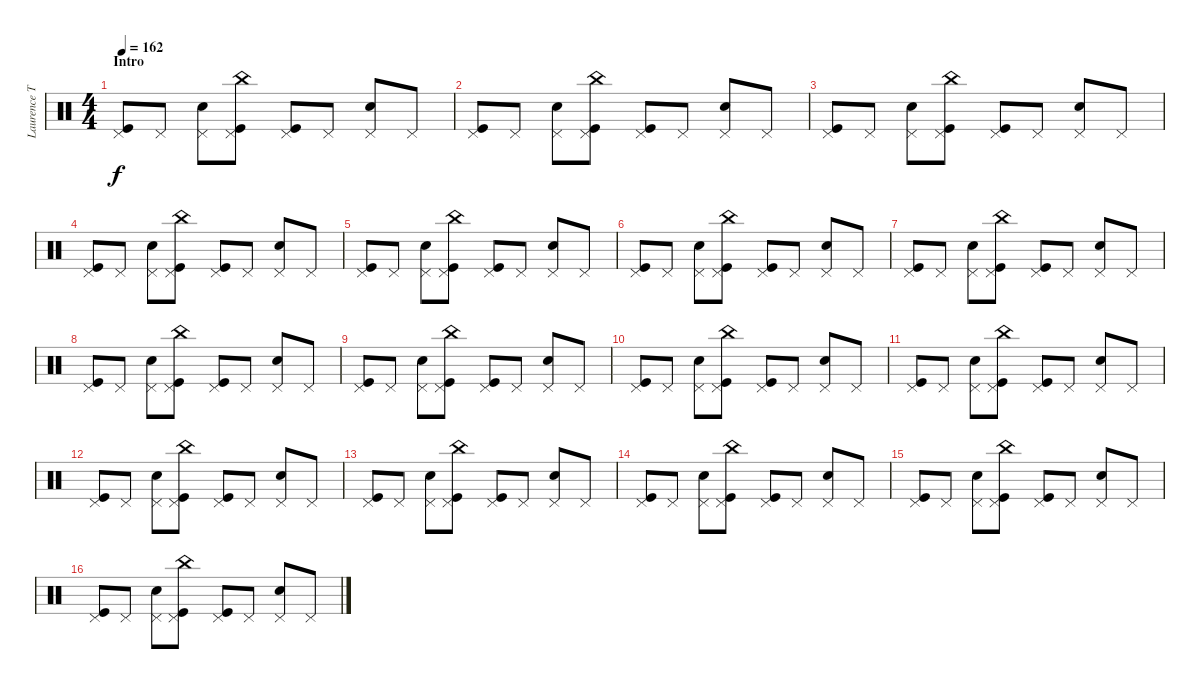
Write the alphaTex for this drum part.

\track ("Laurence Tolhurst (drums)" "Laurence T") {instrument percussion}
\staff {score}
\articulation defaults
\ts (4 4)
\section ("" "Intro")
\tempo 162
\clef neutral
\ks c
("Pedal Hi-Hat (hit)" "Kick (hit)").8{dy f} "Pedal Hi-Hat (hit)".8 ("Pedal Hi-Hat (hit)" "Snare (hit) 2").8 ("China (hit)" "Pedal Hi-Hat (hit)" "Kick (hit)").8 ("Pedal Hi-Hat (hit)" "Kick (hit)").8 "Pedal Hi-Hat (hit)".8 ("Pedal Hi-Hat (hit)" "Snare (hit) 2").8 "Pedal Hi-Hat (hit)".8 |
("Pedal Hi-Hat (hit)" "Kick (hit)").8 "Pedal Hi-Hat (hit)".8 ("Pedal Hi-Hat (hit)" "Snare (hit) 2").8 ("China (hit)" "Pedal Hi-Hat (hit)" "Kick (hit)").8 ("Pedal Hi-Hat (hit)" "Kick (hit)").8 "Pedal Hi-Hat (hit)".8 ("Pedal Hi-Hat (hit)" "Snare (hit) 2").8 "Pedal Hi-Hat (hit)".8 |
("Pedal Hi-Hat (hit)" "Kick (hit)").8 "Pedal Hi-Hat (hit)".8 ("Pedal Hi-Hat (hit)" "Snare (hit) 2").8 ("China (hit)" "Pedal Hi-Hat (hit)" "Kick (hit)").8 ("Pedal Hi-Hat (hit)" "Kick (hit)").8 "Pedal Hi-Hat (hit)".8 ("Pedal Hi-Hat (hit)" "Snare (hit) 2").8 "Pedal Hi-Hat (hit)".8 |
("Pedal Hi-Hat (hit)" "Kick (hit)").8 "Pedal Hi-Hat (hit)".8 ("Pedal Hi-Hat (hit)" "Snare (hit) 2").8 ("China (hit)" "Pedal Hi-Hat (hit)" "Kick (hit)").8 ("Pedal Hi-Hat (hit)" "Kick (hit)").8 "Pedal Hi-Hat (hit)".8 ("Pedal Hi-Hat (hit)" "Snare (hit) 2").8 "Pedal Hi-Hat (hit)".8 |
("Pedal Hi-Hat (hit)" "Kick (hit)").8 "Pedal Hi-Hat (hit)".8 ("Pedal Hi-Hat (hit)" "Snare (hit) 2").8 ("China (hit)" "Pedal Hi-Hat (hit)" "Kick (hit)").8 ("Pedal Hi-Hat (hit)" "Kick (hit)").8 "Pedal Hi-Hat (hit)".8 ("Pedal Hi-Hat (hit)" "Snare (hit) 2").8 "Pedal Hi-Hat (hit)".8 |
("Pedal Hi-Hat (hit)" "Kick (hit)").8 "Pedal Hi-Hat (hit)".8 ("Pedal Hi-Hat (hit)" "Snare (hit) 2").8 ("China (hit)" "Pedal Hi-Hat (hit)" "Kick (hit)").8 ("Pedal Hi-Hat (hit)" "Kick (hit)").8 "Pedal Hi-Hat (hit)".8 ("Pedal Hi-Hat (hit)" "Snare (hit) 2").8 "Pedal Hi-Hat (hit)".8 |
("Pedal Hi-Hat (hit)" "Kick (hit)").8 "Pedal Hi-Hat (hit)".8 ("Pedal Hi-Hat (hit)" "Snare (hit) 2").8 ("China (hit)" "Pedal Hi-Hat (hit)" "Kick (hit)").8 ("Pedal Hi-Hat (hit)" "Kick (hit)").8 "Pedal Hi-Hat (hit)".8 ("Pedal Hi-Hat (hit)" "Snare (hit) 2").8 "Pedal Hi-Hat (hit)".8 |
("Pedal Hi-Hat (hit)" "Kick (hit)").8 "Pedal Hi-Hat (hit)".8 ("Pedal Hi-Hat (hit)" "Snare (hit) 2").8 ("China (hit)" "Pedal Hi-Hat (hit)" "Kick (hit)").8 ("Pedal Hi-Hat (hit)" "Kick (hit)").8 "Pedal Hi-Hat (hit)".8 ("Pedal Hi-Hat (hit)" "Snare (hit) 2").8 "Pedal Hi-Hat (hit)".8 |
("Pedal Hi-Hat (hit)" "Kick (hit)").8 "Pedal Hi-Hat (hit)".8 ("Pedal Hi-Hat (hit)" "Snare (hit) 2").8 ("China (hit)" "Pedal Hi-Hat (hit)" "Kick (hit)").8 ("Pedal Hi-Hat (hit)" "Kick (hit)").8 "Pedal Hi-Hat (hit)".8 ("Pedal Hi-Hat (hit)" "Snare (hit) 2").8 "Pedal Hi-Hat (hit)".8 |
("Pedal Hi-Hat (hit)" "Kick (hit)").8 "Pedal Hi-Hat (hit)".8 ("Pedal Hi-Hat (hit)" "Snare (hit) 2").8 ("China (hit)" "Pedal Hi-Hat (hit)" "Kick (hit)").8 ("Pedal Hi-Hat (hit)" "Kick (hit)").8 "Pedal Hi-Hat (hit)".8 ("Pedal Hi-Hat (hit)" "Snare (hit) 2").8 "Pedal Hi-Hat (hit)".8 |
("Pedal Hi-Hat (hit)" "Kick (hit)").8 "Pedal Hi-Hat (hit)".8 ("Pedal Hi-Hat (hit)" "Snare (hit) 2").8 ("China (hit)" "Pedal Hi-Hat (hit)" "Kick (hit)").8 ("Pedal Hi-Hat (hit)" "Kick (hit)").8 "Pedal Hi-Hat (hit)".8 ("Pedal Hi-Hat (hit)" "Snare (hit) 2").8 "Pedal Hi-Hat (hit)".8 |
("Pedal Hi-Hat (hit)" "Kick (hit)").8 "Pedal Hi-Hat (hit)".8 ("Pedal Hi-Hat (hit)" "Snare (hit) 2").8 ("China (hit)" "Pedal Hi-Hat (hit)" "Kick (hit)").8 ("Pedal Hi-Hat (hit)" "Kick (hit)").8 "Pedal Hi-Hat (hit)".8 ("Pedal Hi-Hat (hit)" "Snare (hit) 2").8 "Pedal Hi-Hat (hit)".8 |
("Pedal Hi-Hat (hit)" "Kick (hit)").8 "Pedal Hi-Hat (hit)".8 ("Pedal Hi-Hat (hit)" "Snare (hit) 2").8 ("China (hit)" "Pedal Hi-Hat (hit)" "Kick (hit)").8 ("Pedal Hi-Hat (hit)" "Kick (hit)").8 "Pedal Hi-Hat (hit)".8 ("Pedal Hi-Hat (hit)" "Snare (hit) 2").8 "Pedal Hi-Hat (hit)".8 |
("Pedal Hi-Hat (hit)" "Kick (hit)").8 "Pedal Hi-Hat (hit)".8 ("Pedal Hi-Hat (hit)" "Snare (hit) 2").8 ("China (hit)" "Pedal Hi-Hat (hit)" "Kick (hit)").8 ("Pedal Hi-Hat (hit)" "Kick (hit)").8 "Pedal Hi-Hat (hit)".8 ("Pedal Hi-Hat (hit)" "Snare (hit) 2").8 "Pedal Hi-Hat (hit)".8 |
("Pedal Hi-Hat (hit)" "Kick (hit)").8 "Pedal Hi-Hat (hit)".8 ("Pedal Hi-Hat (hit)" "Snare (hit) 2").8 ("China (hit)" "Pedal Hi-Hat (hit)" "Kick (hit)").8 ("Pedal Hi-Hat (hit)" "Kick (hit)").8 "Pedal Hi-Hat (hit)".8 ("Pedal Hi-Hat (hit)" "Snare (hit) 2").8 "Pedal Hi-Hat (hit)".8 |
("Pedal Hi-Hat (hit)" "Kick (hit)").8 "Pedal Hi-Hat (hit)".8 ("Pedal Hi-Hat (hit)" "Snare (hit) 2").8 ("China (hit)" "Pedal Hi-Hat (hit)" "Kick (hit)").8 ("Pedal Hi-Hat (hit)" "Kick (hit)").8 "Pedal Hi-Hat (hit)".8 ("Pedal Hi-Hat (hit)" "Snare (hit) 2").8 "Pedal Hi-Hat (hit)".8
